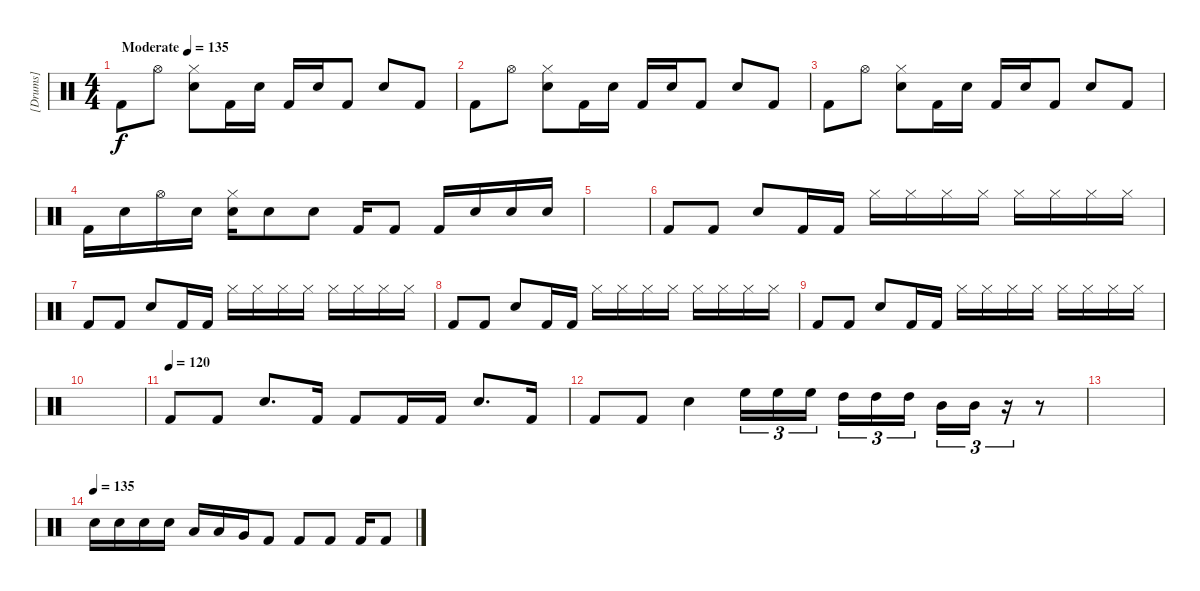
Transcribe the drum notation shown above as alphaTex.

\track ("[Drums]" "[Drums]") {instrument percussion}
\staff {score}
\articulation defaults
\ts (4 4)
\tempo (135 "Moderate")
\clef neutral
\ks c "Kick (hit) 2".8{dy f} "Hi-Hat (open)".8
("Hi-Hat (closed)" "Electric Snare (hit)").8 "Kick (hit) 2".16 "Electric Snare (hit)".16 "Kick (hit) 2".16 "Electric Snare (hit)".16 "Kick (hit) 2".8 "Electric Snare (hit)".8 "Kick (hit) 2".8 |
"Kick (hit) 2".8 "Hi-Hat (open)".8 ("Hi-Hat (closed)" "Electric Snare (hit)").8 "Kick (hit) 2".16 "Electric Snare (hit)".16 "Kick (hit) 2".16 "Electric Snare (hit)".16 "Kick (hit) 2".8 "Electric Snare (hit)".8 "Kick (hit) 2".8 |
"Kick (hit) 2".8 "Hi-Hat (open)".8 ("Hi-Hat (closed)" "Electric Snare (hit)").8 "Kick (hit) 2".16 "Electric Snare (hit)".16 "Kick (hit) 2".16 "Electric Snare (hit)".16 "Kick (hit) 2".8 "Electric Snare (hit)".8 "Kick (hit) 2".8 |
"Kick (hit) 2".16 "Electric Snare (hit)".16 "Hi-Hat (open)".16 "Electric Snare (hit)".16 ("Hi-Hat (closed)" "Electric Snare (hit)").16 "Electric Snare (hit)".8 "Electric Snare (hit)".8 "Kick (hit) 2".16 "Kick (hit) 2".8 "Kick (hit) 2".16 "Electric Snare (hit)".16 "Electric Snare (hit)".16 "Electric Snare (hit)".16 |
|
"Kick (hit) 2".8 "Kick (hit) 2".8 "Electric Snare (hit)".8 "Kick (hit) 2".16 "Kick (hit) 2".16 "Hi-Hat (closed)".16 "Hi-Hat (closed)".16 "Hi-Hat (closed)".16 "Hi-Hat (closed)".16 "Hi-Hat (closed)".16 "Hi-Hat (closed)".16 "Hi-Hat (closed)".16 "Hi-Hat (closed)".16 |
"Kick (hit) 2".8 "Kick (hit) 2".8 "Electric Snare (hit)".8 "Kick (hit) 2".16 "Kick (hit) 2".16 "Hi-Hat (closed)".16 "Hi-Hat (closed)".16 "Hi-Hat (closed)".16 "Hi-Hat (closed)".16 "Hi-Hat (closed)".16 "Hi-Hat (closed)".16 "Hi-Hat (closed)".16 "Hi-Hat (closed)".16 |
"Kick (hit) 2".8 "Kick (hit) 2".8 "Electric Snare (hit)".8 "Kick (hit) 2".16 "Kick (hit) 2".16 "Hi-Hat (closed)".16 "Hi-Hat (closed)".16 "Hi-Hat (closed)".16 "Hi-Hat (closed)".16 "Hi-Hat (closed)".16 "Hi-Hat (closed)".16 "Hi-Hat (closed)".16 "Hi-Hat (closed)".16 |
"Kick (hit) 2".8 "Kick (hit) 2".8 "Electric Snare (hit)".8 "Kick (hit) 2".16 "Kick (hit) 2".16 "Hi-Hat (closed)".16 "Hi-Hat (closed)".16 "Hi-Hat (closed)".16 "Hi-Hat (closed)".16 "Hi-Hat (closed)".16 "Hi-Hat (closed)".16 "Hi-Hat (closed)".16 "Hi-Hat (closed)".16 |
|
\tempo (120)
"Kick (hit) 2".8 "Kick (hit) 2".8 "Electric Snare (hit)".8{d} "Kick (hit) 2".16 "Kick (hit) 2".8 "Kick (hit) 2".16 "Kick (hit) 2".16 "Electric Snare (hit)".8{d} "Kick (hit) 2".16 |
"Kick (hit) 2".8 "Kick (hit) 2".8 "Electric Snare (hit)".4 "High Floor Tom (hit)".16{tu (3 2)} "High Floor Tom (hit)".16{tu (3 2)} "High Floor Tom (hit)".16{tu (3 2) beam splitsecondary} "High Tom (hit)".16{tu (3 2)} "High Tom (hit)".16{tu (3 2)} "High Tom (hit)".16{tu (3 2)} "Mid Tom (hit)".16{tu (3 2)} "Mid Tom (hit)".16{tu (3 2)} r.16{tu (3 2)} r.8 |
|
\tempo (135)
"Electric Snare (hit)".16 "Electric Snare (hit)".16 "Electric Snare (hit)".16 "Electric Snare (hit)".16 "Low Tom (hit)".16 "Low Tom (hit)".16 "Very Low Tom (hit)".16 "Kick (hit) 2".8 "Kick (hit) 2".8 "Kick (hit) 2".8 "Kick (hit) 2".16 "Kick (hit) 2".8
